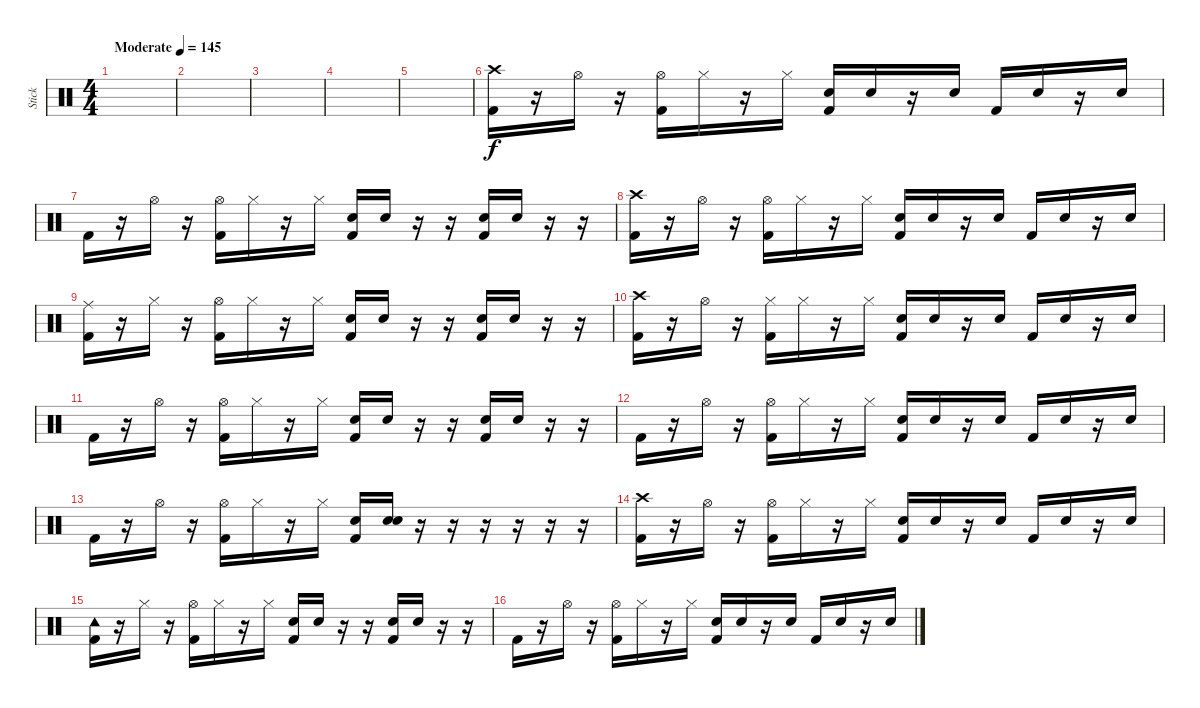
\track ("Stick" "Stick") {instrument percussion}
\staff {score}
\articulation defaults
\ts (4 4)
\tempo (145 "Moderate")
\clef neutral
\ks c
|
|
|
|
|
("Kick (hit) 2" "Crash high (hit)").16 r.16 "Hi-Hat (open)".16 r.16 ("Kick (hit) 2" "Hi-Hat (open)").16 "Hi-Hat (closed)".16 r.16 "Hi-Hat (closed)".16 ("Kick (hit) 2" "Electric Snare (hit)").16 "Electric Snare (hit)".16 r.16 "Electric Snare (hit)".16 "Kick (hit) 2".16 "Electric Snare (hit)".16 r.16 "Electric Snare (hit)".16 |
"Kick (hit) 2".16 r.16 "Hi-Hat (open)".16 r.16 ("Kick (hit) 2" "Hi-Hat (open)").16 "Hi-Hat (closed)".16 r.16 "Hi-Hat (closed)".16 ("Kick (hit) 2" "Electric Snare (hit)").16 "Electric Snare (hit)".16 r.16 r.16 ("Kick (hit) 2" "Electric Snare (hit)").16 "Electric Snare (hit)".16 r.16 r.16 |
("Kick (hit) 2" "Crash high (hit)").16 r.16 "Hi-Hat (open)".16 r.16 ("Kick (hit) 2" "Hi-Hat (open)").16 "Hi-Hat (closed)".16 r.16 "Hi-Hat (closed)".16 ("Kick (hit) 2" "Electric Snare (hit)").16 "Electric Snare (hit)".16 r.16 "Electric Snare (hit)".16 "Kick (hit) 2".16 "Electric Snare (hit)".16 r.16 "Electric Snare (hit)".16 |
("Kick (hit) 2" "Ride (middle)").16 r.16 "Hi-Hat (closed)".16 r.16 ("Kick (hit) 2" "Hi-Hat (open)").16 "Hi-Hat (closed)".16 r.16 "Hi-Hat (closed)".16 ("Kick (hit) 2" "Electric Snare (hit)").16 "Electric Snare (hit)".16 r.16 r.16 ("Kick (hit) 2" "Electric Snare (hit)").16 "Electric Snare (hit)".16 r.16 r.16 |
("Kick (hit) 2" "Crash high (hit)").16 r.16 "Hi-Hat (open)".16 r.16 ("Kick (hit) 2" "Hi-Hat (closed)").16 "Hi-Hat (closed)".16 r.16 "Hi-Hat (closed)".16 ("Kick (hit) 2" "Electric Snare (hit)").16 "Electric Snare (hit)".16 r.16 "Electric Snare (hit)".16 "Kick (hit) 2".16 "Electric Snare (hit)".16 r.16 "Electric Snare (hit)".16 |
"Kick (hit) 2".16 r.16 "Hi-Hat (open)".16 r.16 ("Kick (hit) 2" "Hi-Hat (open)").16 "Hi-Hat (closed)".16 r.16 "Hi-Hat (closed)".16 ("Kick (hit) 2" "Electric Snare (hit)").16 "Electric Snare (hit)".16 r.16 r.16 ("Kick (hit) 2" "Electric Snare (hit)").16 "Electric Snare (hit)".16 r.16 r.16 |
"Kick (hit) 2".16 r.16 "Hi-Hat (open)".16 r.16 ("Kick (hit) 2" "Hi-Hat (open)").16 "Hi-Hat (closed)".16 r.16 "Hi-Hat (closed)".16 ("Kick (hit) 2" "Electric Snare (hit)").16 "Electric Snare (hit)".16 r.16 "Electric Snare (hit)".16 "Kick (hit) 2".16 "Electric Snare (hit)".16 r.16 "Electric Snare (hit)".16 |
"Kick (hit) 2".16 r.16 "Hi-Hat (open)".16 r.16 ("Kick (hit) 2" "Hi-Hat (open)").16 "Hi-Hat (closed)".16 r.16 "Hi-Hat (closed)".16 ("Kick (hit) 2" "Electric Snare (hit)").16 ("Electric Snare (hit)" "Electric Snare (hit)").16 r.16 r.16 r.16 r.16 r.16 r.16 |
("Kick (hit) 2" "Crash high (hit)").16 r.16 "Hi-Hat (open)".16 r.16 ("Kick (hit) 2" "Hi-Hat (open)").16 "Hi-Hat (closed)".16 r.16 "Hi-Hat (closed)".16 ("Kick (hit) 2" "Electric Snare (hit)").16 "Electric Snare (hit)".16 r.16 "Electric Snare (hit)".16 "Kick (hit) 2".16 "Electric Snare (hit)".16 r.16 "Electric Snare (hit)".16 |
("Kick (hit) 2" "Tambourine (hit)").16 r.16 "Hi-Hat (closed)".16 r.16 ("Kick (hit) 2" "Hi-Hat (open)").16 "Hi-Hat (closed)".16 r.16 "Hi-Hat (closed)".16 ("Kick (hit) 2" "Electric Snare (hit)").16 "Electric Snare (hit)".16 r.16 r.16 ("Kick (hit) 2" "Electric Snare (hit)").16 "Electric Snare (hit)".16 r.16 r.16 |
"Kick (hit) 2".16 r.16 "Hi-Hat (open)".16 r.16 ("Kick (hit) 2" "Hi-Hat (open)").16 "Hi-Hat (closed)".16 r.16 "Hi-Hat (closed)".16 ("Kick (hit) 2" "Electric Snare (hit)").16 "Electric Snare (hit)".16 r.16 "Electric Snare (hit)".16 "Kick (hit) 2".16 "Electric Snare (hit)".16 r.16 "Electric Snare (hit)".16
